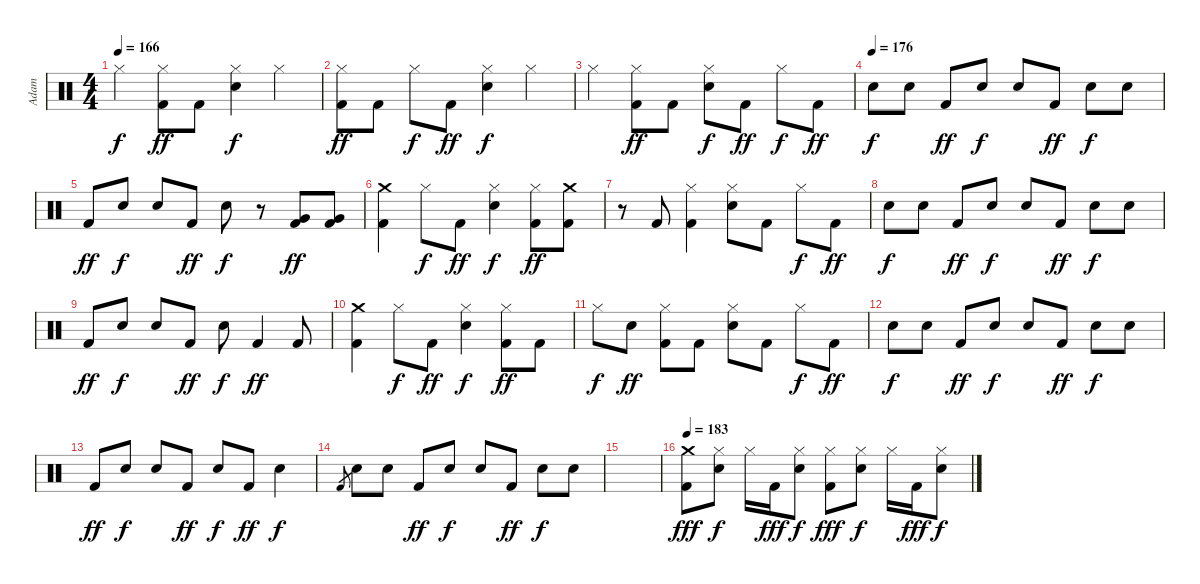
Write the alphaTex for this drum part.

\track ("Adam" "Adam") {instrument percussion}
\staff {score}
\articulation defaults
\ts (4 4)
\tempo 166
\clef neutral
\ks c "Hi-Hat (closed)".4{dy f}
("Hi-Hat (closed)" "Kick (hit) 2").8{dy ff} "Kick (hit) 2".8 ("Hi-Hat (closed)" "Electric Snare (hit)").4{dy f} "Hi-Hat (closed)".4 |
("Hi-Hat (closed)" "Kick (hit) 2").8{dy ff} "Kick (hit) 2".8 "Hi-Hat (closed)".8{dy f} "Kick (hit) 2".8{dy ff} ("Hi-Hat (closed)" "Electric Snare (hit)").4{dy f} "Hi-Hat (closed)".4 |
"Hi-Hat (closed)".4 ("Hi-Hat (closed)" "Kick (hit) 2").8{dy ff} "Kick (hit) 2".8 ("Hi-Hat (closed)" "Electric Snare (hit)").8{dy f} "Kick (hit) 2".8{dy ff} "Hi-Hat (closed)".8{dy f} "Kick (hit) 2".8{dy ff} |
\tempo (176)
"Electric Snare (hit)".8{dy f} "Electric Snare (hit)".8 "Kick (hit) 2".8{dy ff} "Electric Snare (hit)".8{dy f} "Electric Snare (hit)".8 "Kick (hit) 2".8{dy ff} "Electric Snare (hit)".8{dy f} "Electric Snare (hit)".8 |
"Kick (hit) 2".8{dy ff} "Electric Snare (hit)".8{dy f} "Electric Snare (hit)".8 "Kick (hit) 2".8{dy ff} "Electric Snare (hit)".8{dy f} r.8 ("Very Low Tom (hit)" "Kick (hit) 2").8{dy ff} ("Very Low Tom (hit)" "Kick (hit) 2").8 |
("Crash medium (hit)" "Kick (hit) 2").4 "Hi-Hat (closed)".8{dy f} "Kick (hit) 2".8{dy ff} ("Hi-Hat (closed)" "Electric Snare (hit)").4{dy f} ("Hi-Hat (closed)" "Kick (hit) 2").8{dy ff} ("Crash medium (hit)" "Kick (hit) 2").8 |
r.8 "Kick (hit) 2".8 ("Hi-Hat (closed)" "Kick (hit) 2").4 ("Hi-Hat (closed)" "Electric Snare (hit)").8 "Kick (hit) 2".8 "Hi-Hat (closed)".8{dy f} "Kick (hit) 2".8{dy ff} |
"Electric Snare (hit)".8{dy f} "Electric Snare (hit)".8 "Kick (hit) 2".8{dy ff} "Electric Snare (hit)".8{dy f} "Electric Snare (hit)".8 "Kick (hit) 2".8{dy ff} "Electric Snare (hit)".8{dy f} "Electric Snare (hit)".8 |
"Kick (hit) 2".8{dy ff} "Electric Snare (hit)".8{dy f} "Electric Snare (hit)".8 "Kick (hit) 2".8{dy ff} "Electric Snare (hit)".8{dy f} "Kick (hit) 2".4{dy ff} "Kick (hit) 2".8 |
("Crash medium (hit)" "Kick (hit) 2").4 "Hi-Hat (closed)".8{dy f} "Kick (hit) 2".8{dy ff} ("Hi-Hat (closed)" "Electric Snare (hit)").4{dy f} ("Hi-Hat (closed)" "Kick (hit) 2").8{dy ff} "Kick (hit) 2".8 |
"Hi-Hat (closed)".8{dy f} "Electric Snare (hit)".8{dy ff} ("Hi-Hat (closed)" "Kick (hit) 2").8 "Kick (hit) 2".8 ("Hi-Hat (closed)" "Electric Snare (hit)").8 "Kick (hit) 2".8 "Hi-Hat (closed)".8{dy f} "Kick (hit) 2".8{dy ff} |
"Electric Snare (hit)".8{dy f} "Electric Snare (hit)".8 "Kick (hit) 2".8{dy ff} "Electric Snare (hit)".8{dy f} "Electric Snare (hit)".8 "Kick (hit) 2".8{dy ff} "Electric Snare (hit)".8{dy f} "Electric Snare (hit)".8 |
"Kick (hit) 2".8{dy ff} "Electric Snare (hit)".8{dy f} "Electric Snare (hit)".8 "Kick (hit) 2".8{dy ff} "Electric Snare (hit)".8{dy f} "Kick (hit) 2".8{dy ff} "Electric Snare (hit)".4{dy f} |
"Kick (hit) 2".8{gr} "Electric Snare (hit)".8 "Electric Snare (hit)".8 "Kick (hit) 2".8{dy ff} "Electric Snare (hit)".8{dy f} "Electric Snare (hit)".8 "Kick (hit) 2".8{dy ff} "Electric Snare (hit)".8{dy f} "Electric Snare (hit)".8 |
|
\tempo 183
("Crash medium (hit)" "Kick (hit) 2").8{dy fff} ("Hi-Hat (closed)" "Electric Snare (hit)").8{dy f} "Hi-Hat (closed)".16 "Kick (hit) 2".16{dy fff} ("Hi-Hat (closed)" "Electric Snare (hit)").8{dy f} ("Hi-Hat (closed)" "Kick (hit) 2").8{dy fff} ("Hi-Hat (closed)" "Electric Snare (hit)").8{dy f} "Hi-Hat (closed)".16 "Kick (hit) 2".16{dy fff} ("Hi-Hat (closed)" "Electric Snare (hit)").8{dy f}
